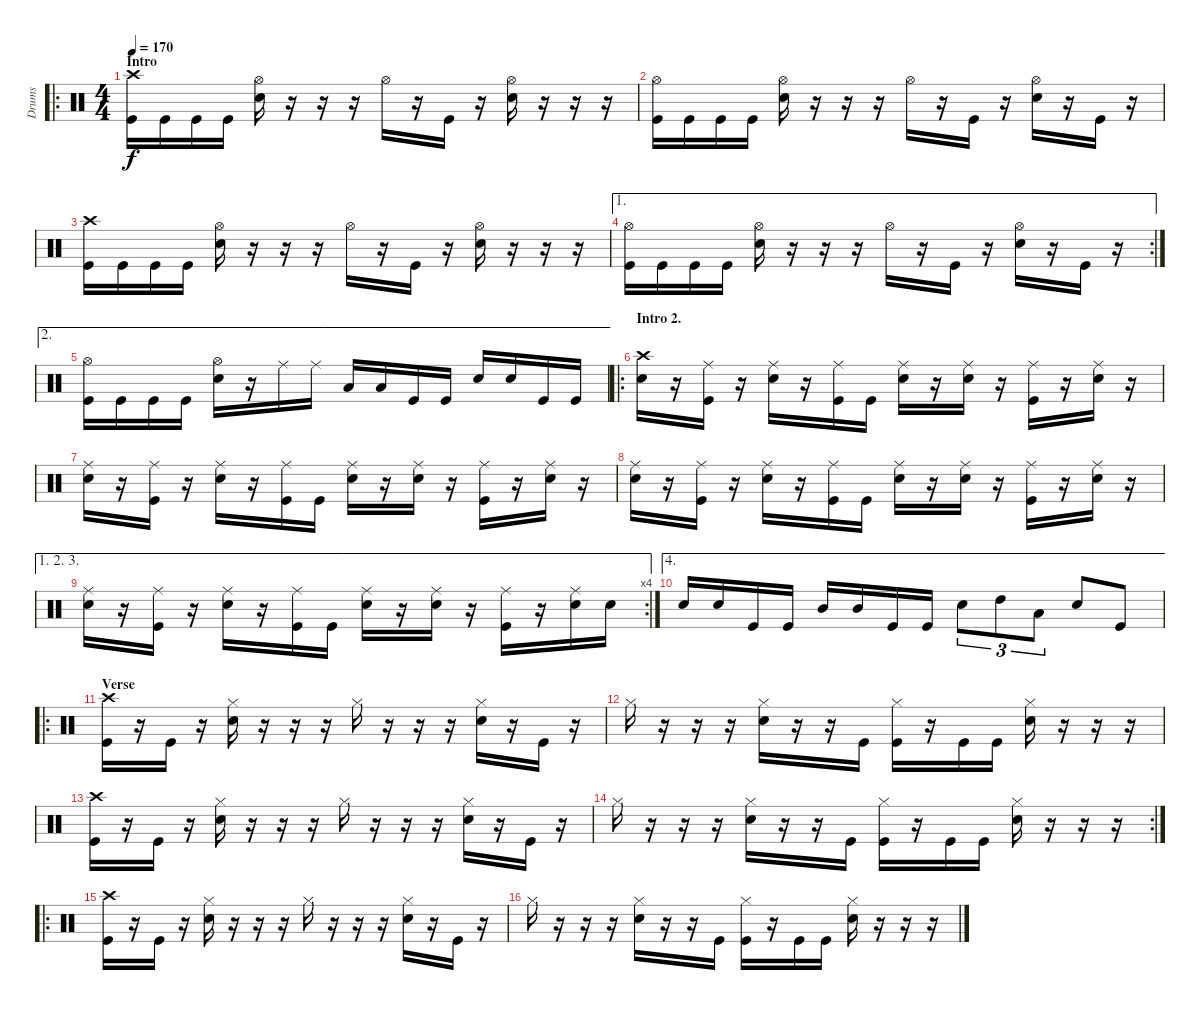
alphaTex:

\track ("Drums" "Drums") {instrument percussion}
\staff {score}
\articulation defaults
\ro
\ts (4 4)
\section ("" "Intro")
\tempo 170
\clef neutral
\ks c
("Crash high (hit)" "Kick (hit)").16{dy f} "Kick (hit)".16 "Kick (hit)".16 "Kick (hit)".16 ("Hi-Hat (open)" "Snare (hit) 2").16 r.16 r.16 r.16 "Hi-Hat (open)".16 r.16 "Kick (hit)".16 r.16 ("Hi-Hat (open)" "Snare (hit) 2").16 r.16 r.16 r.16 |
("Hi-Hat (open)" "Kick (hit)").16 "Kick (hit)".16 "Kick (hit)".16 "Kick (hit)".16 ("Hi-Hat (open)" "Snare (hit) 2").16 r.16 r.16 r.16 "Hi-Hat (open)".16 r.16 "Kick (hit)".16 r.16 ("Hi-Hat (open)" "Snare (hit) 2").16 r.16 "Kick (hit)".16 r.16 |
("Crash high (hit)" "Kick (hit)").16 "Kick (hit)".16 "Kick (hit)".16 "Kick (hit)".16 ("Hi-Hat (open)" "Snare (hit) 2").16 r.16 r.16 r.16 "Hi-Hat (open)".16 r.16 "Kick (hit)".16 r.16 ("Hi-Hat (open)" "Snare (hit) 2").16 r.16 r.16 r.16 |
\ae 1
\rc 2
("Hi-Hat (open)" "Kick (hit)").16 "Kick (hit)".16 "Kick (hit)".16 "Kick (hit)".16 ("Hi-Hat (open)" "Snare (hit) 2").16 r.16 r.16 r.16 "Hi-Hat (open)".16 r.16 "Kick (hit)".16 r.16 ("Hi-Hat (open)" "Snare (hit) 2").16 r.16 "Kick (hit)".16 r.16 |
\ae 2
("Hi-Hat (open)" "Kick (hit)").16 "Kick (hit)".16 "Kick (hit)".16 "Kick (hit)".16 ("Hi-Hat (open)" "Snare (hit) 2").16 r.16 "Ride (middle)".16 "Ride (middle)".16 "Low Tom (hit)".16 "Low Tom (hit)".16 "Kick (hit)".16 "Kick (hit)".16 "Snare (hit) 2".16 "Snare (hit) 2".16 "Kick (hit)".16 "Kick (hit)".16 |
\ro
\section ("" "Intro 2.")
("Crash high (hit)" "Snare (hit) 2").16 r.16 ("Ride (middle)" "Kick (hit)").16 r.16 ("Ride (middle)" "Snare (hit) 2").16 r.16 ("Ride (middle)" "Kick (hit)").16 "Kick (hit)".16 ("Ride (middle)" "Snare (hit) 2").16 r.16 ("Ride (middle)" "Snare (hit) 2").16 r.16 ("Ride (middle)" "Kick (hit)").16 r.16 ("Ride (middle)" "Snare (hit) 2").16 r.16 |
("Ride (middle)" "Snare (hit) 2").16 r.16 ("Ride (middle)" "Kick (hit)").16 r.16 ("Ride (middle)" "Snare (hit) 2").16 r.16 ("Ride (middle)" "Kick (hit)").16 "Kick (hit)".16 ("Ride (middle)" "Snare (hit) 2").16 r.16 ("Ride (middle)" "Snare (hit) 2").16 r.16 ("Ride (middle)" "Kick (hit)").16 r.16 ("Ride (middle)" "Snare (hit) 2").16 r.16 |
("Ride (middle)" "Snare (hit) 2").16 r.16 ("Ride (middle)" "Kick (hit)").16 r.16 ("Ride (middle)" "Snare (hit) 2").16 r.16 ("Ride (middle)" "Kick (hit)").16 "Kick (hit)".16 ("Ride (middle)" "Snare (hit) 2").16 r.16 ("Ride (middle)" "Snare (hit) 2").16 r.16 ("Ride (middle)" "Kick (hit)").16 r.16 ("Ride (middle)" "Snare (hit) 2").16 r.16 |
\ae (1 2 3)
\rc 4
("Ride (middle)" "Snare (hit) 2").16 r.16 ("Ride (middle)" "Kick (hit)").16 r.16 ("Ride (middle)" "Snare (hit) 2").16 r.16 ("Ride (middle)" "Kick (hit)").16 "Kick (hit)".16 ("Ride (middle)" "Snare (hit) 2").16 r.16 ("Ride (middle)" "Snare (hit) 2").16 r.16 ("Ride (middle)" "Kick (hit)").16 r.16 ("Ride (middle)" "Snare (hit) 2").16 "Snare (hit) 2".16 |
\ae 4 "Snare (hit) 2".16 "Snare (hit) 2".16 "Kick (hit)".16 "Kick (hit)".16 "Mid Tom (hit)".16 "Mid Tom (hit)".16 "Kick (hit)".16 "Kick (hit)".16 "Snare (hit) 2".8{tu (3 2)} "High Tom (hit)".8{tu (3 2)} "Low Tom (hit)".8{tu (3 2)} "Snare (hit) 2".8 "Kick (hit)".8
|
\ro
\section ("" "Verse")
("Crash high (hit)" "Kick (hit)").16 r.16 "Kick (hit)".16 r.16 ("Hi-Hat (closed)" "Snare (hit) 2").16 r.16 r.16 r.16 "Hi-Hat (closed)".16 r.16 r.16 r.16 ("Hi-Hat (closed)" "Snare (hit) 2").16 r.16 "Kick (hit)".16 r.16 |
"Hi-Hat (closed)".16 r.16 r.16 r.16 ("Hi-Hat (closed)" "Snare (hit) 2").16 r.16 r.16 "Kick (hit)".16 ("Hi-Hat (closed)" "Kick (hit)").16 r.16 "Kick (hit)".16 "Kick (hit)".16 ("Hi-Hat (closed)" "Snare (hit) 2").16 r.16 r.16 r.16 |
("Crash high (hit)" "Kick (hit)").16 r.16 "Kick (hit)".16 r.16 ("Hi-Hat (closed)" "Snare (hit) 2").16 r.16 r.16 r.16 "Hi-Hat (closed)".16 r.16 r.16 r.16 ("Hi-Hat (closed)" "Snare (hit) 2").16 r.16 "Kick (hit)".16 r.16 |
\rc 2 "Hi-Hat (closed)".16
r.16 r.16 r.16 ("Hi-Hat (closed)" "Snare (hit) 2").16 r.16 r.16 "Kick (hit)".16 ("Hi-Hat (closed)" "Kick (hit)").16 r.16 "Kick (hit)".16 "Kick (hit)".16 ("Hi-Hat (closed)" "Snare (hit) 2").16 r.16 r.16 r.16 |
\ro
("Crash high (hit)" "Kick (hit)").16 r.16 "Kick (hit)".16 r.16 ("Hi-Hat (closed)" "Snare (hit) 2").16 r.16 r.16 r.16 "Hi-Hat (closed)".16 r.16 r.16 r.16 ("Hi-Hat (closed)" "Snare (hit) 2").16 r.16 "Kick (hit)".16 r.16 |
"Hi-Hat (closed)".16 r.16 r.16 r.16 ("Hi-Hat (closed)" "Snare (hit) 2").16 r.16 r.16 "Kick (hit)".16 ("Hi-Hat (closed)" "Kick (hit)").16 r.16 "Kick (hit)".16 "Kick (hit)".16 ("Hi-Hat (closed)" "Snare (hit) 2").16 r.16 r.16 r.16
